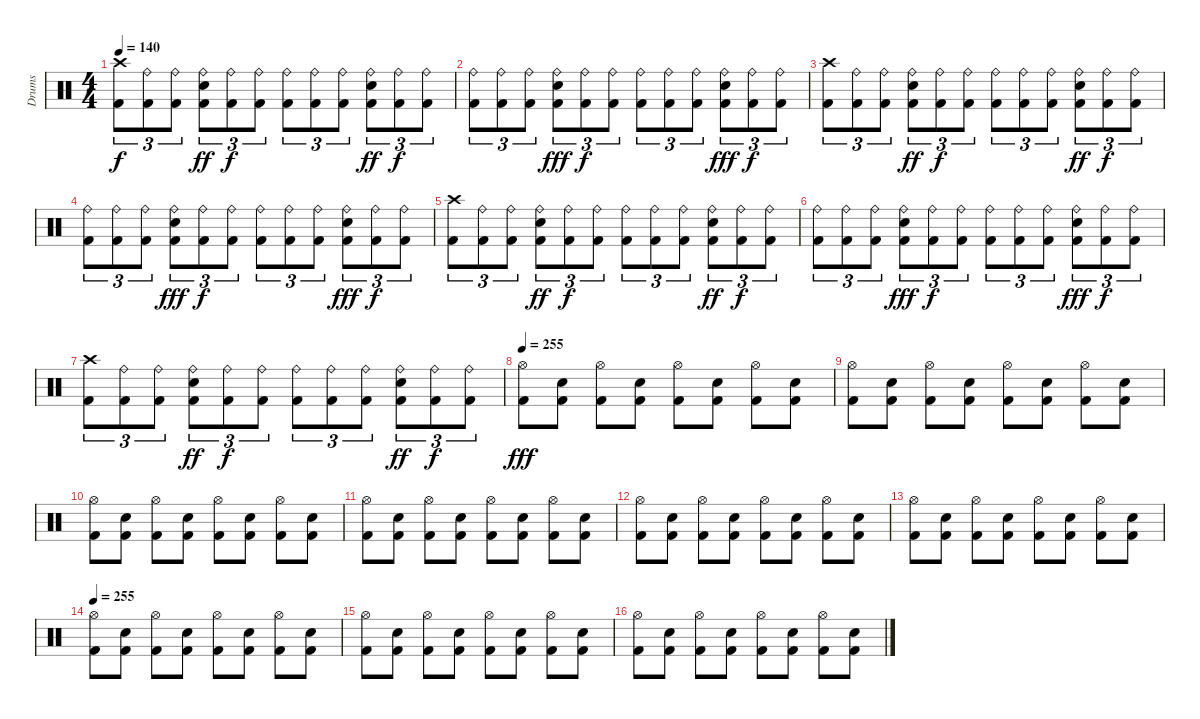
\track ("Drums" "Drums") {instrument percussion}
\staff {score}
\articulation defaults
\ts (4 4)
\tempo 140
\clef neutral
\ks c
("Crash high (hit)" "Kick (hit) 2").8{tu (3 2) dy f} ("Ride (bell)" "Kick (hit) 2").8{tu (3 2)} ("Ride (bell)" "Kick (hit) 2").8{tu (3 2)} ("Ride (bell)" "Electric Snare (hit)" "Kick (hit) 2").8{tu (3 2) dy ff} ("Ride (bell)" "Kick (hit) 2").8{tu (3 2) dy f} ("Ride (bell)" "Kick (hit) 2").8{tu (3 2)} ("Ride (bell)" "Kick (hit) 2").8{tu (3 2)} ("Ride (bell)" "Kick (hit) 2").8{tu (3 2)} ("Ride (bell)" "Kick (hit) 2").8{tu (3 2)} ("Ride (bell)" "Electric Snare (hit)" "Kick (hit) 2").8{tu (3 2) dy ff} ("Ride (bell)" "Kick (hit) 2").8{tu (3 2) dy f} ("Ride (bell)" "Kick (hit) 2").8{tu (3 2)} |
("Ride (bell)" "Kick (hit) 2").8{tu (3 2)} ("Ride (bell)" "Kick (hit) 2").8{tu (3 2)} ("Ride (bell)" "Kick (hit) 2").8{tu (3 2)} ("Ride (bell)" "Electric Snare (hit)" "Kick (hit) 2").8{tu (3 2) dy fff} ("Ride (bell)" "Kick (hit) 2").8{tu (3 2) dy f} ("Ride (bell)" "Kick (hit) 2").8{tu (3 2)} ("Ride (bell)" "Kick (hit) 2").8{tu (3 2)} ("Ride (bell)" "Kick (hit) 2").8{tu (3 2)} ("Ride (bell)" "Kick (hit) 2").8{tu (3 2)} ("Ride (bell)" "Electric Snare (hit)" "Kick (hit) 2").8{tu (3 2) dy fff} ("Ride (bell)" "Kick (hit) 2").8{tu (3 2) dy f} ("Ride (bell)" "Kick (hit) 2").8{tu (3 2)} |
("Crash high (hit)" "Kick (hit) 2").8{tu (3 2)} ("Ride (bell)" "Kick (hit) 2").8{tu (3 2)} ("Ride (bell)" "Kick (hit) 2").8{tu (3 2)} ("Ride (bell)" "Electric Snare (hit)" "Kick (hit) 2").8{tu (3 2) dy ff} ("Ride (bell)" "Kick (hit) 2").8{tu (3 2) dy f} ("Ride (bell)" "Kick (hit) 2").8{tu (3 2)} ("Ride (bell)" "Kick (hit) 2").8{tu (3 2)} ("Ride (bell)" "Kick (hit) 2").8{tu (3 2)} ("Ride (bell)" "Kick (hit) 2").8{tu (3 2)} ("Ride (bell)" "Electric Snare (hit)" "Kick (hit) 2").8{tu (3 2) dy ff} ("Ride (bell)" "Kick (hit) 2").8{tu (3 2) dy f} ("Ride (bell)" "Kick (hit) 2").8{tu (3 2)} |
("Ride (bell)" "Kick (hit) 2").8{tu (3 2)} ("Ride (bell)" "Kick (hit) 2").8{tu (3 2)} ("Ride (bell)" "Kick (hit) 2").8{tu (3 2)} ("Ride (bell)" "Electric Snare (hit)" "Kick (hit) 2").8{tu (3 2) dy fff} ("Ride (bell)" "Kick (hit) 2").8{tu (3 2) dy f} ("Ride (bell)" "Kick (hit) 2").8{tu (3 2)} ("Ride (bell)" "Kick (hit) 2").8{tu (3 2)} ("Ride (bell)" "Kick (hit) 2").8{tu (3 2)} ("Ride (bell)" "Kick (hit) 2").8{tu (3 2)} ("Ride (bell)" "Electric Snare (hit)" "Kick (hit) 2").8{tu (3 2) dy fff} ("Ride (bell)" "Kick (hit) 2").8{tu (3 2) dy f} ("Ride (bell)" "Kick (hit) 2").8{tu (3 2)} |
("Crash high (hit)" "Kick (hit) 2").8{tu (3 2)} ("Ride (bell)" "Kick (hit) 2").8{tu (3 2)} ("Ride (bell)" "Kick (hit) 2").8{tu (3 2)} ("Ride (bell)" "Electric Snare (hit)" "Kick (hit) 2").8{tu (3 2) dy ff} ("Ride (bell)" "Kick (hit) 2").8{tu (3 2) dy f} ("Ride (bell)" "Kick (hit) 2").8{tu (3 2)} ("Ride (bell)" "Kick (hit) 2").8{tu (3 2)} ("Ride (bell)" "Kick (hit) 2").8{tu (3 2)} ("Ride (bell)" "Kick (hit) 2").8{tu (3 2)} ("Ride (bell)" "Electric Snare (hit)" "Kick (hit) 2").8{tu (3 2) dy ff} ("Ride (bell)" "Kick (hit) 2").8{tu (3 2) dy f} ("Ride (bell)" "Kick (hit) 2").8{tu (3 2)} |
("Ride (bell)" "Kick (hit) 2").8{tu (3 2)} ("Ride (bell)" "Kick (hit) 2").8{tu (3 2)} ("Ride (bell)" "Kick (hit) 2").8{tu (3 2)} ("Ride (bell)" "Electric Snare (hit)" "Kick (hit) 2").8{tu (3 2) dy fff} ("Ride (bell)" "Kick (hit) 2").8{tu (3 2) dy f} ("Ride (bell)" "Kick (hit) 2").8{tu (3 2)} ("Ride (bell)" "Kick (hit) 2").8{tu (3 2)} ("Ride (bell)" "Kick (hit) 2").8{tu (3 2)} ("Ride (bell)" "Kick (hit) 2").8{tu (3 2)} ("Ride (bell)" "Electric Snare (hit)" "Kick (hit) 2").8{tu (3 2) dy fff} ("Ride (bell)" "Kick (hit) 2").8{tu (3 2) dy f} ("Ride (bell)" "Kick (hit) 2").8{tu (3 2)} |
("Crash high (hit)" "Kick (hit) 2").8{tu (3 2)} ("Ride (bell)" "Kick (hit) 2").8{tu (3 2)} ("Ride (bell)" "Kick (hit) 2").8{tu (3 2)} ("Ride (bell)" "Electric Snare (hit)" "Kick (hit) 2").8{tu (3 2) dy ff} ("Ride (bell)" "Kick (hit) 2").8{tu (3 2) dy f} ("Ride (bell)" "Kick (hit) 2").8{tu (3 2)} ("Ride (bell)" "Kick (hit) 2").8{tu (3 2)} ("Ride (bell)" "Kick (hit) 2").8{tu (3 2)} ("Ride (bell)" "Kick (hit) 2").8{tu (3 2)} ("Ride (bell)" "Electric Snare (hit)" "Kick (hit) 2").8{tu (3 2) dy ff} ("Ride (bell)" "Kick (hit) 2").8{tu (3 2) dy f} ("Ride (bell)" "Kick (hit) 2").8{tu (3 2)} |
\tempo 255
("Hi-Hat (open)" "Kick (hit) 2").8{dy fff} ("Electric Snare (hit)" "Kick (hit) 2").8 ("Hi-Hat (open)" "Kick (hit) 2").8 ("Electric Snare (hit)" "Kick (hit) 2").8 ("Hi-Hat (open)" "Kick (hit) 2").8 ("Electric Snare (hit)" "Kick (hit) 2").8 ("Hi-Hat (open)" "Kick (hit) 2").8 ("Electric Snare (hit)" "Kick (hit) 2").8 |
("Hi-Hat (open)" "Kick (hit) 2").8 ("Electric Snare (hit)" "Kick (hit) 2").8 ("Hi-Hat (open)" "Kick (hit) 2").8 ("Electric Snare (hit)" "Kick (hit) 2").8 ("Hi-Hat (open)" "Kick (hit) 2").8 ("Electric Snare (hit)" "Kick (hit) 2").8 ("Hi-Hat (open)" "Kick (hit) 2").8 ("Electric Snare (hit)" "Kick (hit) 2").8 |
("Hi-Hat (open)" "Kick (hit) 2").8 ("Electric Snare (hit)" "Kick (hit) 2").8 ("Hi-Hat (open)" "Kick (hit) 2").8 ("Electric Snare (hit)" "Kick (hit) 2").8 ("Hi-Hat (open)" "Kick (hit) 2").8 ("Electric Snare (hit)" "Kick (hit) 2").8 ("Hi-Hat (open)" "Kick (hit) 2").8 ("Electric Snare (hit)" "Kick (hit) 2").8 |
("Hi-Hat (open)" "Kick (hit) 2").8 ("Electric Snare (hit)" "Kick (hit) 2").8 ("Hi-Hat (open)" "Kick (hit) 2").8 ("Electric Snare (hit)" "Kick (hit) 2").8 ("Hi-Hat (open)" "Kick (hit) 2").8 ("Electric Snare (hit)" "Kick (hit) 2").8 ("Hi-Hat (open)" "Kick (hit) 2").8 ("Electric Snare (hit)" "Kick (hit) 2").8 |
("Hi-Hat (open)" "Kick (hit) 2").8 ("Electric Snare (hit)" "Kick (hit) 2").8 ("Hi-Hat (open)" "Kick (hit) 2").8 ("Electric Snare (hit)" "Kick (hit) 2").8 ("Hi-Hat (open)" "Kick (hit) 2").8 ("Electric Snare (hit)" "Kick (hit) 2").8 ("Hi-Hat (open)" "Kick (hit) 2").8 ("Electric Snare (hit)" "Kick (hit) 2").8 |
("Hi-Hat (open)" "Kick (hit) 2").8 ("Electric Snare (hit)" "Kick (hit) 2").8 ("Hi-Hat (open)" "Kick (hit) 2").8 ("Electric Snare (hit)" "Kick (hit) 2").8 ("Hi-Hat (open)" "Kick (hit) 2").8 ("Electric Snare (hit)" "Kick (hit) 2").8 ("Hi-Hat (open)" "Kick (hit) 2").8 ("Electric Snare (hit)" "Kick (hit) 2").8 |
\tempo 255
("Hi-Hat (open)" "Kick (hit) 2").8 ("Electric Snare (hit)" "Kick (hit) 2").8 ("Hi-Hat (open)" "Kick (hit) 2").8 ("Electric Snare (hit)" "Kick (hit) 2").8 ("Hi-Hat (open)" "Kick (hit) 2").8 ("Electric Snare (hit)" "Kick (hit) 2").8 ("Hi-Hat (open)" "Kick (hit) 2").8 ("Electric Snare (hit)" "Kick (hit) 2").8 |
("Hi-Hat (open)" "Kick (hit) 2").8 ("Electric Snare (hit)" "Kick (hit) 2").8 ("Hi-Hat (open)" "Kick (hit) 2").8 ("Electric Snare (hit)" "Kick (hit) 2").8 ("Hi-Hat (open)" "Kick (hit) 2").8 ("Electric Snare (hit)" "Kick (hit) 2").8 ("Hi-Hat (open)" "Kick (hit) 2").8 ("Electric Snare (hit)" "Kick (hit) 2").8 |
("Hi-Hat (open)" "Kick (hit) 2").8 ("Electric Snare (hit)" "Kick (hit) 2").8 ("Hi-Hat (open)" "Kick (hit) 2").8 ("Electric Snare (hit)" "Kick (hit) 2").8 ("Hi-Hat (open)" "Kick (hit) 2").8 ("Electric Snare (hit)" "Kick (hit) 2").8 ("Hi-Hat (open)" "Kick (hit) 2").8 ("Electric Snare (hit)" "Kick (hit) 2").8
